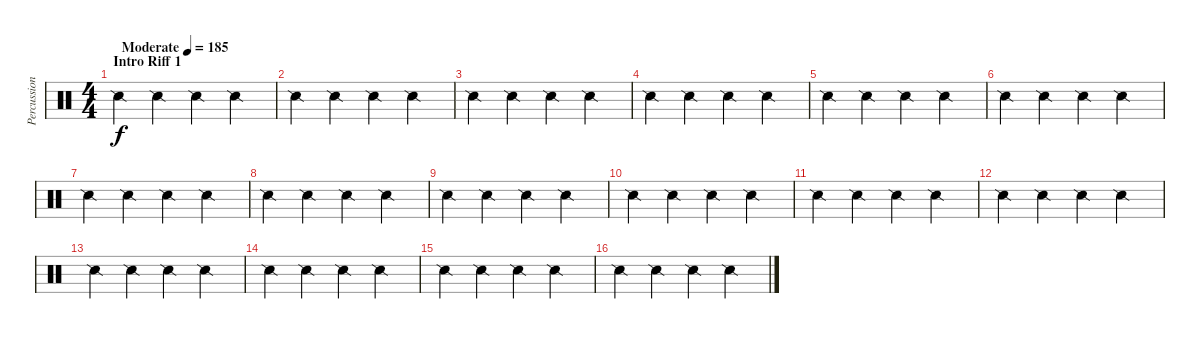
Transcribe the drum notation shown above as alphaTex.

\track ("Percussion" "Percussion") {instrument percussion}
\staff {score}
\articulation defaults
\ts (4 4)
\section ("" "Intro Riff 1")
\tempo (185 "Moderate")
\clef neutral
\ks c "Snare (side stick) 2".4{dy f} "Snare (side stick) 2".4 "Snare (side stick) 2".4 "Snare (side stick) 2".4
|
"Snare (side stick) 2".4 "Snare (side stick) 2".4 "Snare (side stick) 2".4 "Snare (side stick) 2".4 |
"Snare (side stick) 2".4 "Snare (side stick) 2".4 "Snare (side stick) 2".4 "Snare (side stick) 2".4 |
"Snare (side stick) 2".4 "Snare (side stick) 2".4 "Snare (side stick) 2".4 "Snare (side stick) 2".4 |
"Snare (side stick) 2".4 "Snare (side stick) 2".4 "Snare (side stick) 2".4 "Snare (side stick) 2".4 |
"Snare (side stick) 2".4 "Snare (side stick) 2".4 "Snare (side stick) 2".4 "Snare (side stick) 2".4 |
"Snare (side stick) 2".4 "Snare (side stick) 2".4 "Snare (side stick) 2".4 "Snare (side stick) 2".4 |
"Snare (side stick) 2".4 "Snare (side stick) 2".4 "Snare (side stick) 2".4 "Snare (side stick) 2".4 |
"Snare (side stick) 2".4 "Snare (side stick) 2".4 "Snare (side stick) 2".4 "Snare (side stick) 2".4 |
"Snare (side stick) 2".4 "Snare (side stick) 2".4 "Snare (side stick) 2".4 "Snare (side stick) 2".4 |
"Snare (side stick) 2".4 "Snare (side stick) 2".4 "Snare (side stick) 2".4 "Snare (side stick) 2".4 |
"Snare (side stick) 2".4 "Snare (side stick) 2".4 "Snare (side stick) 2".4 "Snare (side stick) 2".4 |
"Snare (side stick) 2".4 "Snare (side stick) 2".4 "Snare (side stick) 2".4 "Snare (side stick) 2".4 |
"Snare (side stick) 2".4 "Snare (side stick) 2".4 "Snare (side stick) 2".4 "Snare (side stick) 2".4 |
"Snare (side stick) 2".4 "Snare (side stick) 2".4 "Snare (side stick) 2".4 "Snare (side stick) 2".4 |
"Snare (side stick) 2".4 "Snare (side stick) 2".4 "Snare (side stick) 2".4 "Snare (side stick) 2".4
